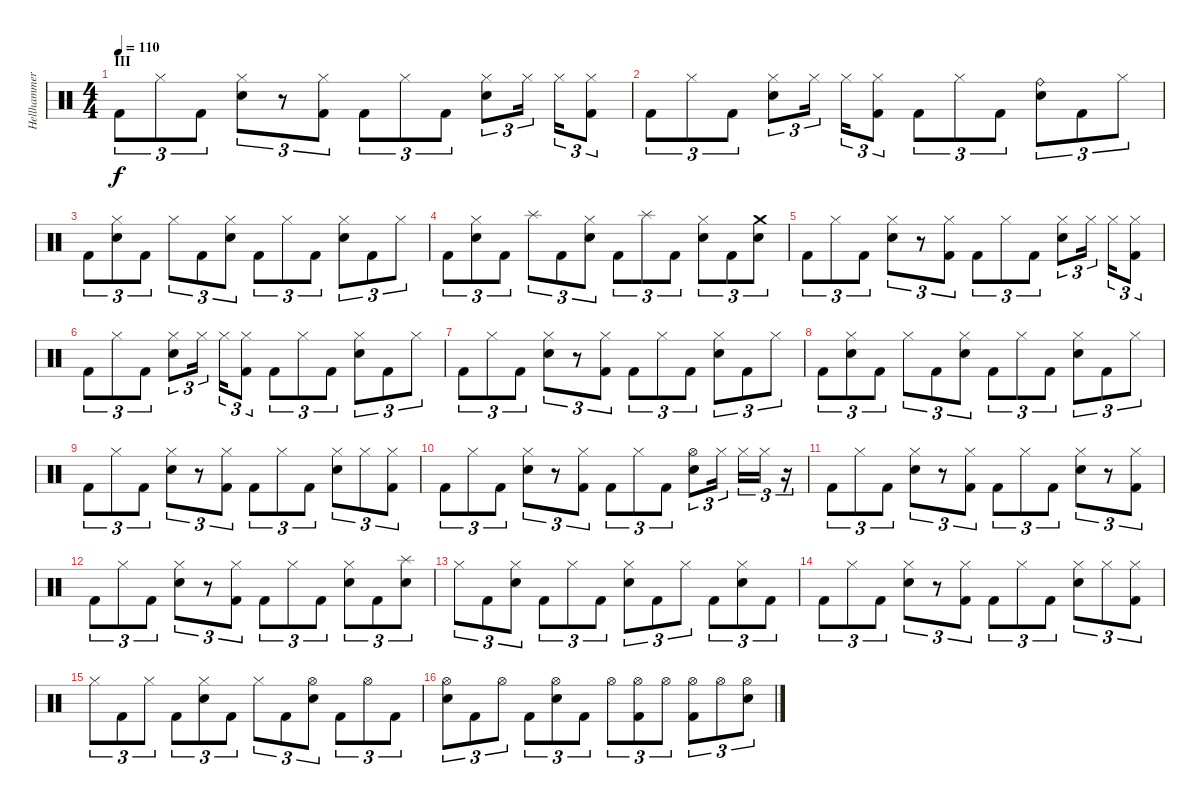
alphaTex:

\track ("Hellhammer" "Hellhammer") {instrument percussion}
\staff {score}
\articulation defaults
\ts (4 4)
\section ("" "III")
\tempo 110
\clef neutral
\ks c "Kick (hit) 2".8{tu (3 2) dy f} "Hi-Hat (closed)".8{tu (3 2)} "Kick (hit) 2".8{tu (3 2)}
("Electric Snare (hit)" "Hi-Hat (closed)").8{tu (3 2)} r.8{tu (3 2)} ("Kick (hit) 2" "Hi-Hat (closed)").8{tu (3 2)} "Kick (hit) 2".8{tu (3 2)} "Hi-Hat (closed)".8{tu (3 2)} "Kick (hit) 2".8{tu (3 2)} ("Electric Snare (hit)" "Hi-Hat (closed)").8{tu (3 2)} "Hi-Hat (closed)".16{tu (3 2)} "Hi-Hat (closed)".16{tu (3 2)} ("Kick (hit) 2" "Hi-Hat (closed)").8{tu (3 2)} |
"Kick (hit) 2".8{tu (3 2)} "Hi-Hat (closed)".8{tu (3 2)} "Kick (hit) 2".8{tu (3 2)} ("Electric Snare (hit)" "Hi-Hat (closed)").8{tu (3 2)} "Hi-Hat (closed)".16{tu (3 2)} "Hi-Hat (closed)".16{tu (3 2)} ("Kick (hit) 2" "Hi-Hat (closed)").8{tu (3 2)} "Kick (hit) 2".8{tu (3 2)} "Hi-Hat (closed)".8{tu (3 2)} "Kick (hit) 2".8{tu (3 2)} ("Electric Snare (hit)" "Ride (bell)").8{tu (3 2)} "Kick (hit) 2".8{tu (3 2)} "Hi-Hat (closed)".8{tu (3 2)} |
"Kick (hit) 2".8{tu (3 2)} ("Electric Snare (hit)" "Hi-Hat (closed)").8{tu (3 2)} "Kick (hit) 2".8{tu (3 2)} "Hi-Hat (closed)".8{tu (3 2)} "Kick (hit) 2".8{tu (3 2)} ("Electric Snare (hit)" "Hi-Hat (closed)").8{tu (3 2)} "Kick (hit) 2".8{tu (3 2)} "Hi-Hat (closed)".8{tu (3 2)} "Kick (hit) 2".8{tu (3 2)} ("Electric Snare (hit)" "Hi-Hat (closed)").8{tu (3 2)} "Kick (hit) 2".8{tu (3 2)} "Hi-Hat (closed)".8{tu (3 2)} |
"Kick (hit) 2".8{tu (3 2)} ("Electric Snare (hit)" "Hi-Hat (closed)").8{tu (3 2)} "Kick (hit) 2".8{tu (3 2)} "Splash (hit)".8{tu (3 2)} "Kick (hit) 2".8{tu (3 2)} ("Electric Snare (hit)" "Hi-Hat (closed)").8{tu (3 2)} "Kick (hit) 2".8{tu (3 2)} "Splash (hit)".8{tu (3 2)} "Kick (hit) 2".8{tu (3 2)} ("Electric Snare (hit)" "Hi-Hat (closed)").8{tu (3 2)} "Kick (hit) 2".8{tu (3 2)} ("Electric Snare (hit)" "Crash medium (hit)").8{tu (3 2)} |
"Kick (hit) 2".8{tu (3 2)} "Hi-Hat (closed)".8{tu (3 2)} "Kick (hit) 2".8{tu (3 2)} ("Electric Snare (hit)" "Hi-Hat (closed)").8{tu (3 2)} r.8{tu (3 2)} ("Kick (hit) 2" "Hi-Hat (closed)").8{tu (3 2)} "Kick (hit) 2".8{tu (3 2)} "Hi-Hat (closed)".8{tu (3 2)} "Kick (hit) 2".8{tu (3 2)} ("Electric Snare (hit)" "Hi-Hat (closed)").8{tu (3 2)} "Hi-Hat (closed)".16{tu (3 2)} "Hi-Hat (closed)".16{tu (3 2)} ("Kick (hit) 2" "Hi-Hat (closed)").8{tu (3 2)} |
"Kick (hit) 2".8{tu (3 2)} "Hi-Hat (closed)".8{tu (3 2)} "Kick (hit) 2".8{tu (3 2)} ("Electric Snare (hit)" "Hi-Hat (closed)").8{tu (3 2)} "Hi-Hat (closed)".16{tu (3 2)} "Hi-Hat (closed)".16{tu (3 2)} ("Kick (hit) 2" "Hi-Hat (closed)").8{tu (3 2)} "Kick (hit) 2".8{tu (3 2)} "Hi-Hat (closed)".8{tu (3 2)} "Kick (hit) 2".8{tu (3 2)} ("Electric Snare (hit)" "Hi-Hat (closed)").8{tu (3 2)} "Kick (hit) 2".8{tu (3 2)} "Hi-Hat (closed)".8{tu (3 2)} |
"Kick (hit) 2".8{tu (3 2)} "Hi-Hat (closed)".8{tu (3 2)} "Kick (hit) 2".8{tu (3 2)} ("Electric Snare (hit)" "Hi-Hat (closed)").8{tu (3 2)} r.8{tu (3 2)} ("Kick (hit) 2" "Hi-Hat (closed)").8{tu (3 2)} "Kick (hit) 2".8{tu (3 2)} "Hi-Hat (closed)".8{tu (3 2)} "Kick (hit) 2".8{tu (3 2)} ("Electric Snare (hit)" "Hi-Hat (closed)").8{tu (3 2)} "Kick (hit) 2".8{tu (3 2)} "Hi-Hat (closed)".8{tu (3 2)} |
"Kick (hit) 2".8{tu (3 2)} ("Electric Snare (hit)" "Hi-Hat (closed)").8{tu (3 2)} "Kick (hit) 2".8{tu (3 2)} "Hi-Hat (closed)".8{tu (3 2)} "Kick (hit) 2".8{tu (3 2)} ("Electric Snare (hit)" "Hi-Hat (closed)").8{tu (3 2)} "Kick (hit) 2".8{tu (3 2)} "Hi-Hat (closed)".8{tu (3 2)} "Kick (hit) 2".8{tu (3 2)} ("Electric Snare (hit)" "Hi-Hat (closed)").8{tu (3 2)} "Kick (hit) 2".8{tu (3 2)} "Hi-Hat (closed)".8{tu (3 2)} |
"Kick (hit) 2".8{tu (3 2)} "Hi-Hat (closed)".8{tu (3 2)} "Kick (hit) 2".8{tu (3 2)} ("Electric Snare (hit)" "Hi-Hat (closed)").8{tu (3 2)} r.8{tu (3 2)} ("Kick (hit) 2" "Hi-Hat (closed)").8{tu (3 2)} "Kick (hit) 2".8{tu (3 2)} "Hi-Hat (closed)".8{tu (3 2)} "Kick (hit) 2".8{tu (3 2)} ("Electric Snare (hit)" "Hi-Hat (closed)").8{tu (3 2)} "Hi-Hat (closed)".8{tu (3 2)} ("Kick (hit) 2" "Hi-Hat (closed)").8{tu (3 2)} |
"Kick (hit) 2".8{tu (3 2)} "Hi-Hat (closed)".8{tu (3 2)} "Kick (hit) 2".8{tu (3 2)} ("Electric Snare (hit)" "Hi-Hat (closed)").8{tu (3 2)} r.8{tu (3 2)} ("Kick (hit) 2" "Hi-Hat (closed)").8{tu (3 2)} "Kick (hit) 2".8{tu (3 2)} "Hi-Hat (closed)".8{tu (3 2)} "Kick (hit) 2".8{tu (3 2)} ("Electric Snare (hit)" "Hi-Hat (open)").8{tu (3 2)} "Hi-Hat (closed)".16{tu (3 2)} "Hi-Hat (closed)".16{tu (3 2)} "Hi-Hat (closed)".16{tu (3 2)} r.16{tu (3 2)} |
"Kick (hit) 2".8{tu (3 2)} "Hi-Hat (closed)".8{tu (3 2)} "Kick (hit) 2".8{tu (3 2)} ("Electric Snare (hit)" "Hi-Hat (closed)").8{tu (3 2)} r.8{tu (3 2)} ("Kick (hit) 2" "Hi-Hat (closed)").8{tu (3 2)} "Kick (hit) 2".8{tu (3 2)} "Hi-Hat (closed)".8{tu (3 2)} "Kick (hit) 2".8{tu (3 2)} ("Electric Snare (hit)" "Hi-Hat (closed)").8{tu (3 2)} r.8{tu (3 2)} ("Kick (hit) 2" "Hi-Hat (closed)").8{tu (3 2)} |
"Kick (hit) 2".8{tu (3 2)} "Hi-Hat (closed)".8{tu (3 2)} "Kick (hit) 2".8{tu (3 2)} ("Electric Snare (hit)" "Hi-Hat (closed)").8{tu (3 2)} r.8{tu (3 2)} ("Kick (hit) 2" "Hi-Hat (closed)").8{tu (3 2)} "Kick (hit) 2".8{tu (3 2)} "Hi-Hat (closed)".8{tu (3 2)} "Kick (hit) 2".8{tu (3 2)} ("Electric Snare (hit)" "Hi-Hat (closed)").8{tu (3 2)} "Kick (hit) 2".8{tu (3 2)} ("Electric Snare (hit)" "Splash (hit)").8{tu (3 2)} |
"Hi-Hat (closed)".8{tu (3 2)} "Kick (hit) 2".8{tu (3 2)} ("Electric Snare (hit)" "Hi-Hat (closed)").8{tu (3 2)} "Kick (hit) 2".8{tu (3 2)} "Hi-Hat (closed)".8{tu (3 2)} "Kick (hit) 2".8{tu (3 2)} ("Electric Snare (hit)" "Hi-Hat (closed)").8{tu (3 2)} "Kick (hit) 2".8{tu (3 2)} "Hi-Hat (closed)".8{tu (3 2)} "Kick (hit) 2".8{tu (3 2)} ("Electric Snare (hit)" "Hi-Hat (closed)").8{tu (3 2)} "Kick (hit) 2".8{tu (3 2)} |
"Kick (hit) 2".8{tu (3 2)} "Hi-Hat (closed)".8{tu (3 2)} "Kick (hit) 2".8{tu (3 2)} ("Electric Snare (hit)" "Hi-Hat (closed)").8{tu (3 2)} r.8{tu (3 2)} ("Kick (hit) 2" "Hi-Hat (closed)").8{tu (3 2)} "Kick (hit) 2".8{tu (3 2)} "Hi-Hat (closed)".8{tu (3 2)} "Kick (hit) 2".8{tu (3 2)} ("Electric Snare (hit)" "Hi-Hat (closed)").8{tu (3 2)} "Hi-Hat (closed)".8{tu (3 2)} ("Kick (hit) 2" "Hi-Hat (closed)").8{tu (3 2)} |
"Hi-Hat (closed)".8{tu (3 2)} "Kick (hit) 2".8{tu (3 2)} "Hi-Hat (closed)".8{tu (3 2)} "Kick (hit) 2".8{tu (3 2)} ("Electric Snare (hit)" "Hi-Hat (closed)").8{tu (3 2)} "Kick (hit) 2".8{tu (3 2)} "Hi-Hat (closed)".8{tu (3 2)} "Kick (hit) 2".8{tu (3 2)} ("Electric Snare (hit)" "Hi-Hat (open)").8{tu (3 2)} "Kick (hit) 2".8{tu (3 2)} "Hi-Hat (open)".8{tu (3 2)} "Kick (hit) 2".8{tu (3 2)} |
("Electric Snare (hit)" "Hi-Hat (open)").8{tu (3 2)} "Kick (hit) 2".8{tu (3 2)} "Hi-Hat (open)".8{tu (3 2)} "Kick (hit) 2".8{tu (3 2)} ("Electric Snare (hit)" "Hi-Hat (open)").8{tu (3 2)} "Kick (hit) 2".8{tu (3 2)} "Hi-Hat (open)".8{tu (3 2)} ("Kick (hit) 2" "Hi-Hat (open)").8{tu (3 2)} "Hi-Hat (open)".8{tu (3 2)} ("Kick (hit) 2" "Hi-Hat (open)").8{tu (3 2)} "Hi-Hat (open)".8{tu (3 2)} ("Electric Snare (hit)" "Hi-Hat (open)").8{tu (3 2)}
